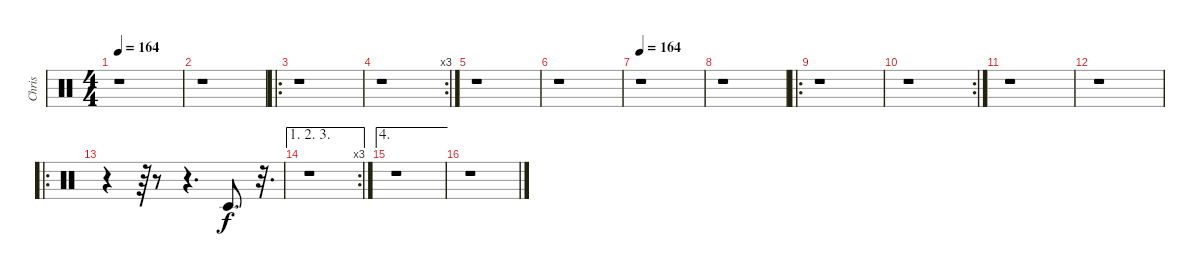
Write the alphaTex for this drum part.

\track ("Chris" "Chris") {instrument percussion}
\staff {score}
\articulation defaults
\ts (4 4)
\tempo 164
\clef neutral
\ks c
r.1{dy f} |
r.1 |
\ro
r.1 |
\rc 3
r.1 |
r.1 |
r.1 |
\tempo 164
r.1 |
r.1 |
\ro
r.1 |
\rc 2
r.1 |
r.1 |
r.1 |
\ro
r.4 r.64 r.8 r.4{d} "Timbale low (hit)".8{d} r.32{d} |
\ae (1 2 3)
\rc 3
r.1 |
\ae 4
r.1 |
r.1
